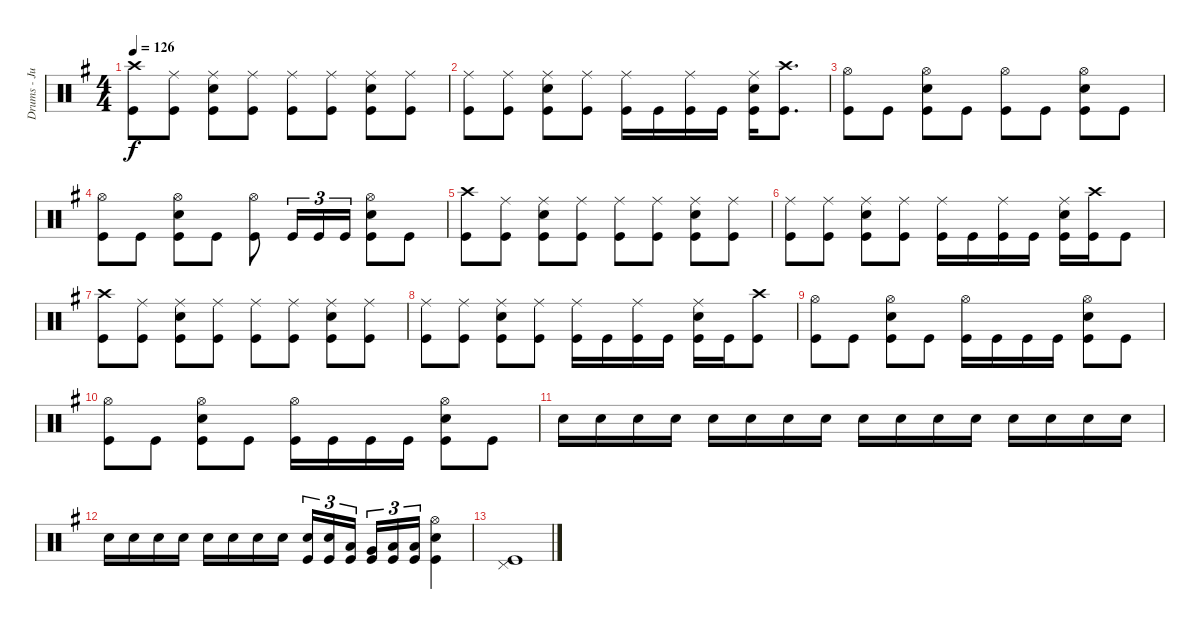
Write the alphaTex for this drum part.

\track ("Drums - Jukka" "Drums - Ju") {instrument percussion}
\staff {score}
\articulation defaults
\ts (4 4)
\tempo 126
\clef neutral
\ks eminor
("Kick (hit)" "Crash high (hit)").8{dy f} ("Kick (hit)" "Ride (middle)").8 ("Kick (hit)" "Snare (hit) 2" "Ride (middle)").8 ("Kick (hit)" "Ride (middle)").8 ("Kick (hit)" "Ride (middle)").8 ("Kick (hit)" "Ride (middle)").8 ("Kick (hit)" "Snare (hit) 2" "Ride (middle)").8 ("Kick (hit)" "Ride (middle)").8 |
("Kick (hit)" "Ride (middle)").8 ("Kick (hit)" "Ride (middle)").8 ("Kick (hit)" "Snare (hit) 2" "Ride (middle)").8 ("Kick (hit)" "Ride (middle)").8 ("Kick (hit)" "Ride (middle)").16 "Kick (hit)".16 ("Kick (hit)" "Ride (middle)").16 "Kick (hit)".16 ("Kick (hit)" "Snare (hit) 2" "Ride (middle)").16 ("Kick (hit)" "Crash high (hit)").8{d} |
("Kick (hit)" "Hi-Hat (open)").8 "Kick (hit)".8 ("Kick (hit)" "Snare (hit) 2" "Hi-Hat (open)").8 "Kick (hit)".8 ("Kick (hit)" "Hi-Hat (open)").8 "Kick (hit)".8 ("Kick (hit)" "Snare (hit) 2" "Hi-Hat (open)").8 "Kick (hit)".8 |
("Kick (hit)" "Hi-Hat (open)").8 "Kick (hit)".8 ("Kick (hit)" "Snare (hit) 2" "Hi-Hat (open)").8 "Kick (hit)".8 ("Kick (hit)" "Hi-Hat (open)").8 "Kick (hit)".16{tu (3 2)} "Kick (hit)".16{tu (3 2)} "Kick (hit)".16{tu (3 2)} ("Kick (hit)" "Snare (hit) 2" "Hi-Hat (open)").8 "Kick (hit)".8 |
("Kick (hit)" "Crash high (hit)").8 ("Kick (hit)" "Ride (middle)").8 ("Kick (hit)" "Snare (hit) 2" "Ride (middle)").8 ("Kick (hit)" "Ride (middle)").8 ("Kick (hit)" "Ride (middle)").8 ("Kick (hit)" "Ride (middle)").8 ("Kick (hit)" "Snare (hit) 2" "Ride (middle)").8 ("Kick (hit)" "Ride (middle)").8 |
("Kick (hit)" "Ride (middle)").8 ("Kick (hit)" "Ride (middle)").8 ("Kick (hit)" "Snare (hit) 2" "Ride (middle)").8 ("Kick (hit)" "Ride (middle)").8 ("Kick (hit)" "Ride (middle)").16 "Kick (hit)".16 ("Kick (hit)" "Ride (middle)").16 "Kick (hit)".16 ("Kick (hit)" "Snare (hit) 2" "Ride (middle)").16 ("Kick (hit)" "Crash high (hit)").16 "Kick (hit)".8 |
("Kick (hit)" "Crash high (hit)").8 ("Kick (hit)" "Ride (middle)").8 ("Kick (hit)" "Snare (hit) 2" "Ride (middle)").8 ("Kick (hit)" "Ride (middle)").8 ("Kick (hit)" "Ride (middle)").8 ("Kick (hit)" "Ride (middle)").8 ("Kick (hit)" "Snare (hit) 2" "Ride (middle)").8 ("Kick (hit)" "Ride (middle)").8 |
("Kick (hit)" "Ride (middle)").8 ("Kick (hit)" "Ride (middle)").8 ("Kick (hit)" "Snare (hit) 2" "Ride (middle)").8 ("Kick (hit)" "Ride (middle)").8 ("Kick (hit)" "Ride (middle)").16 "Kick (hit)".16 ("Kick (hit)" "Ride (middle)").16 "Kick (hit)".16 ("Kick (hit)" "Snare (hit) 2" "Ride (middle)").16 "Kick (hit)".16 ("Kick (hit)" "Crash high (hit)").8 |
("Hi-Hat (open)" "Kick (hit)").8 "Kick (hit)".8 ("Kick (hit)" "Snare (hit) 2" "Hi-Hat (open)").8 "Kick (hit)".8 ("Kick (hit)" "Hi-Hat (open)").16 "Kick (hit)".16 "Kick (hit)".16 "Kick (hit)".16 ("Kick (hit)" "Snare (hit) 2" "Hi-Hat (open)").8 "Kick (hit)".8 |
("Hi-Hat (open)" "Kick (hit)").8 "Kick (hit)".8 ("Kick (hit)" "Snare (hit) 2" "Hi-Hat (open)").8 "Kick (hit)".8 ("Kick (hit)" "Hi-Hat (open)").16 "Kick (hit)".16 "Kick (hit)".16 "Kick (hit)".16 ("Kick (hit)" "Snare (hit) 2" "Hi-Hat (open)").8 "Kick (hit)".8 |
"Snare (hit) 2".16 "Snare (hit) 2".16 "Snare (hit) 2".16 "Snare (hit) 2".16 "Snare (hit) 2".16 "Snare (hit) 2".16 "Snare (hit) 2".16 "Snare (hit) 2".16 "Snare (hit) 2".16 "Snare (hit) 2".16 "Snare (hit) 2".16 "Snare (hit) 2".16 "Snare (hit) 2".16 "Snare (hit) 2".16 "Snare (hit) 2".16 "Snare (hit) 2".16 |
"Snare (hit) 2".16 "Snare (hit) 2".16 "Snare (hit) 2".16 "Snare (hit) 2".16 "Snare (hit) 2".16 "Snare (hit) 2".16 "Snare (hit) 2".16 "Snare (hit) 2".16 ("Kick (hit)" "Snare (hit) 2").16{tu (3 2)} ("Kick (hit)" "Snare (hit) 2").16{tu (3 2)} ("Kick (hit)" "Low Tom (hit)").16{tu (3 2) beam splitsecondary} ("Kick (hit)" "Very Low Tom (hit)").16{tu (3 2)} ("Kick (hit)" "Low Floor Tom (hit)").16{tu (3 2)} ("Kick (hit)" "Low Floor Tom (hit)").16{tu (3 2)} ("Snare (hit) 2" "Hi-Hat (open)" "Kick (hit)").4 |
("Kick (hit)" "Pedal Hi-Hat (hit)").1
